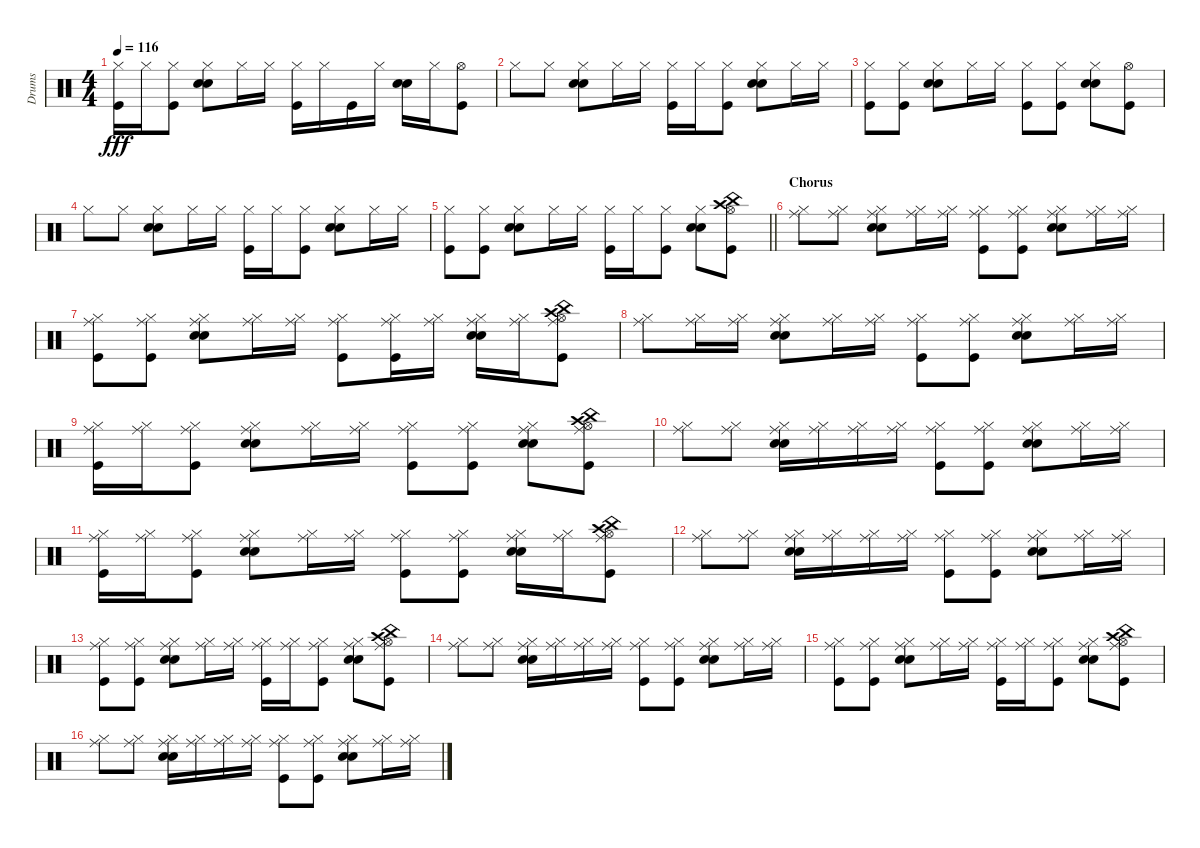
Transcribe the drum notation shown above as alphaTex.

\track ("Drums" "Drums") {instrument percussion}
\staff {score}
\articulation defaults
\ts (4 4)
\tempo 116
\clef neutral
\ks c
("Hi-Hat (closed)" "Kick (hit)").16{dy fff} "Hi-Hat (closed)".16 ("Hi-Hat (closed)" "Kick (hit)").8 ("Snare (hit) 2" "Electric Snare (hit)" "Hi-Hat (closed)").8 "Hi-Hat (closed)".16 "Hi-Hat (closed)".16 ("Kick (hit)" "Hi-Hat (closed)").16 "Hi-Hat (closed)".16 "Kick (hit)".16 "Hi-Hat (closed)".16 ("Snare (hit) 2" "Electric Snare (hit)").16 "Hi-Hat (closed)".16 ("Hi-Hat (open)" "Kick (hit)").8 |
"Hi-Hat (closed)".8 "Hi-Hat (closed)".8 ("Snare (hit) 2" "Electric Snare (hit)" "Hi-Hat (closed)").8 "Hi-Hat (closed)".16 "Hi-Hat (closed)".16 ("Hi-Hat (closed)" "Kick (hit)").16 "Hi-Hat (closed)".16 ("Kick (hit)" "Hi-Hat (closed)").8 ("Snare (hit) 2" "Electric Snare (hit)" "Hi-Hat (closed)").8 "Hi-Hat (closed)".16 "Hi-Hat (closed)".16 |
("Kick (hit)" "Hi-Hat (closed)").8 ("Kick (hit)" "Hi-Hat (closed)").8 ("Snare (hit) 2" "Electric Snare (hit)" "Hi-Hat (closed)").8 "Hi-Hat (closed)".16 "Hi-Hat (closed)".16 ("Kick (hit)" "Hi-Hat (closed)").8 ("Hi-Hat (closed)" "Kick (hit)").8 ("Hi-Hat (closed)" "Snare (hit) 2" "Electric Snare (hit)").8 ("Hi-Hat (open)" "Kick (hit)").8 |
"Hi-Hat (closed)".8 "Hi-Hat (closed)".8 ("Snare (hit) 2" "Electric Snare (hit)" "Hi-Hat (closed)").8 "Hi-Hat (closed)".16 "Hi-Hat (closed)".16 ("Hi-Hat (closed)" "Kick (hit)").16 "Hi-Hat (closed)".16 ("Hi-Hat (closed)" "Kick (hit)").8 ("Snare (hit) 2" "Electric Snare (hit)" "Hi-Hat (closed)").8 "Hi-Hat (closed)".16 "Hi-Hat (closed)".16 |
\barLineRight lightlight
("Kick (hit)" "Hi-Hat (closed)").8 ("Hi-Hat (closed)" "Kick (hit)").8 ("Snare (hit) 2" "Electric Snare (hit)" "Hi-Hat (closed)").8 "Hi-Hat (closed)".16 "Hi-Hat (closed)".16 ("Kick (hit)" "Hi-Hat (closed)").16 "Hi-Hat (closed)".16 ("Hi-Hat (closed)" "Kick (hit)").8 ("Snare (hit) 2" "Electric Snare (hit)" "Hi-Hat (closed)").8 ("Hi-Hat (open)" "Crash high (hit)" "China (hit)" "Kick (hit)").8 |
\section ("" "Chorus")
("Ride (middle)" "Hi-Hat (closed)").8 ("Ride (middle)" "Hi-Hat (closed)").8 ("Snare (hit) 2" "Electric Snare (hit)" "Ride (middle)" "Hi-Hat (closed)").8 ("Ride (middle)" "Hi-Hat (closed)").16 ("Ride (middle)" "Hi-Hat (closed)").16 ("Ride (middle)" "Hi-Hat (closed)" "Kick (hit)").8 ("Ride (middle)" "Hi-Hat (closed)" "Kick (hit)").8 ("Ride (middle)" "Hi-Hat (closed)" "Snare (hit) 2" "Electric Snare (hit)").8 ("Ride (middle)" "Hi-Hat (closed)").16 ("Ride (middle)" "Hi-Hat (closed)").16 |
("Ride (middle)" "Hi-Hat (closed)" "Kick (hit)").8 ("Ride (middle)" "Hi-Hat (closed)" "Kick (hit)").8 ("Snare (hit) 2" "Electric Snare (hit)" "Ride (middle)" "Hi-Hat (closed)").8 ("Ride (middle)" "Hi-Hat (closed)").16 ("Ride (middle)" "Hi-Hat (closed)").16 ("Kick (hit)" "Ride (middle)" "Hi-Hat (closed)").8 ("Kick (hit)" "Ride (middle)" "Hi-Hat (closed)").16 ("Ride (middle)" "Hi-Hat (closed)").16 ("Snare (hit) 2" "Electric Snare (hit)" "Ride (middle)" "Hi-Hat (closed)").16 ("Ride (middle)" "Hi-Hat (closed)").16 ("Crash high (hit)" "China (hit)" "Ride (middle)" "Hi-Hat (open)" "Kick (hit)").8 |
("Ride (middle)" "Hi-Hat (closed)").8 ("Ride (middle)" "Hi-Hat (closed)").16 ("Ride (middle)" "Hi-Hat (closed)").16 ("Snare (hit) 2" "Electric Snare (hit)" "Ride (middle)" "Hi-Hat (closed)").8 ("Ride (middle)" "Hi-Hat (closed)").16 ("Ride (middle)" "Hi-Hat (closed)").16 ("Ride (middle)" "Hi-Hat (closed)" "Kick (hit)").8 ("Ride (middle)" "Hi-Hat (closed)" "Kick (hit)").8 ("Ride (middle)" "Hi-Hat (closed)" "Snare (hit) 2" "Electric Snare (hit)").8 ("Ride (middle)" "Hi-Hat (closed)").16 ("Ride (middle)" "Hi-Hat (closed)").16 |
("Ride (middle)" "Hi-Hat (closed)" "Kick (hit)").16 ("Ride (middle)" "Hi-Hat (closed)").16 ("Ride (middle)" "Hi-Hat (closed)" "Kick (hit)").8 ("Snare (hit) 2" "Electric Snare (hit)" "Ride (middle)" "Hi-Hat (closed)").8 ("Ride (middle)" "Hi-Hat (closed)").16 ("Ride (middle)" "Hi-Hat (closed)").16 ("Kick (hit)" "Ride (middle)" "Hi-Hat (closed)").8 ("Ride (middle)" "Hi-Hat (closed)" "Kick (hit)").8 ("Snare (hit) 2" "Electric Snare (hit)" "Ride (middle)" "Hi-Hat (closed)").8 ("Crash high (hit)" "China (hit)" "Ride (middle)" "Hi-Hat (open)" "Kick (hit)").8 |
("Ride (middle)" "Hi-Hat (closed)").8 ("Ride (middle)" "Hi-Hat (closed)").8 ("Snare (hit) 2" "Electric Snare (hit)" "Ride (middle)" "Hi-Hat (closed)").16 ("Ride (middle)" "Hi-Hat (closed)").16 ("Ride (middle)" "Hi-Hat (closed)").16 ("Ride (middle)" "Hi-Hat (closed)").16 ("Ride (middle)" "Hi-Hat (closed)" "Kick (hit)").8 ("Ride (middle)" "Hi-Hat (closed)" "Kick (hit)").8 ("Snare (hit) 2" "Electric Snare (hit)" "Ride (middle)" "Hi-Hat (closed)").8 ("Ride (middle)" "Hi-Hat (closed)").16 ("Ride (middle)" "Hi-Hat (closed)").16 |
("Ride (middle)" "Hi-Hat (closed)" "Kick (hit)").16 ("Ride (middle)" "Hi-Hat (closed)").16 ("Ride (middle)" "Hi-Hat (closed)" "Kick (hit)").8 ("Snare (hit) 2" "Electric Snare (hit)" "Ride (middle)" "Hi-Hat (closed)").8 ("Ride (middle)" "Hi-Hat (closed)").16 ("Ride (middle)" "Hi-Hat (closed)").16 ("Ride (middle)" "Hi-Hat (closed)" "Kick (hit)").8 ("Ride (middle)" "Hi-Hat (closed)" "Kick (hit)").8 ("Snare (hit) 2" "Electric Snare (hit)" "Ride (middle)" "Hi-Hat (closed)").16 ("Ride (middle)" "Hi-Hat (closed)").16 ("Crash high (hit)" "China (hit)" "Kick (hit)" "Ride (middle)" "Hi-Hat (open)").8 |
("Ride (middle)" "Hi-Hat (closed)").8 ("Ride (middle)" "Hi-Hat (closed)").8 ("Snare (hit) 2" "Electric Snare (hit)" "Ride (middle)" "Hi-Hat (closed)").16 ("Ride (middle)" "Hi-Hat (closed)").16 ("Ride (middle)" "Hi-Hat (closed)").16 ("Ride (middle)" "Hi-Hat (closed)").16 ("Ride (middle)" "Hi-Hat (closed)" "Kick (hit)").8 ("Ride (middle)" "Hi-Hat (closed)" "Kick (hit)").8 ("Snare (hit) 2" "Electric Snare (hit)" "Ride (middle)" "Hi-Hat (closed)").8 ("Ride (middle)" "Hi-Hat (closed)").16 ("Ride (middle)" "Hi-Hat (closed)").16 |
("Ride (middle)" "Hi-Hat (closed)" "Kick (hit)").8 ("Ride (middle)" "Hi-Hat (closed)" "Kick (hit)").8 ("Ride (middle)" "Hi-Hat (closed)" "Snare (hit) 2" "Electric Snare (hit)").8 ("Ride (middle)" "Hi-Hat (closed)").16 ("Ride (middle)" "Hi-Hat (closed)").16 ("Ride (middle)" "Hi-Hat (closed)" "Kick (hit)").16 ("Ride (middle)" "Hi-Hat (closed)").16 ("Ride (middle)" "Hi-Hat (closed)" "Kick (hit)").8 ("Snare (hit) 2" "Electric Snare (hit)" "Ride (middle)" "Hi-Hat (closed)").8 ("Ride (middle)" "Hi-Hat (open)" "Crash high (hit)" "China (hit)" "Kick (hit)").8 |
("Ride (middle)" "Hi-Hat (closed)").8 ("Ride (middle)" "Hi-Hat (closed)").8 ("Snare (hit) 2" "Electric Snare (hit)" "Ride (middle)" "Hi-Hat (closed)").16 ("Ride (middle)" "Hi-Hat (closed)").16 ("Ride (middle)" "Hi-Hat (closed)").16 ("Ride (middle)" "Hi-Hat (closed)").16 ("Ride (middle)" "Hi-Hat (closed)" "Kick (hit)").8 ("Ride (middle)" "Hi-Hat (closed)" "Kick (hit)").8 ("Ride (middle)" "Hi-Hat (closed)" "Snare (hit) 2" "Electric Snare (hit)").8 ("Ride (middle)" "Hi-Hat (closed)").16 ("Ride (middle)" "Hi-Hat (closed)").16 |
("Ride (middle)" "Hi-Hat (closed)" "Kick (hit)").8 ("Ride (middle)" "Hi-Hat (closed)" "Kick (hit)").8 ("Ride (middle)" "Hi-Hat (closed)" "Snare (hit) 2" "Electric Snare (hit)").8 ("Ride (middle)" "Hi-Hat (closed)").16 ("Ride (middle)" "Hi-Hat (closed)").16 ("Kick (hit)" "Ride (middle)" "Hi-Hat (closed)").16 ("Ride (middle)" "Hi-Hat (closed)").16 ("Ride (middle)" "Hi-Hat (closed)" "Kick (hit)").8 ("Snare (hit) 2" "Electric Snare (hit)" "Ride (middle)" "Hi-Hat (closed)").8 ("Crash high (hit)" "China (hit)" "Kick (hit)" "Ride (middle)" "Hi-Hat (open)").8 |
("Ride (middle)" "Hi-Hat (closed)").8 ("Ride (middle)" "Hi-Hat (closed)").8 ("Snare (hit) 2" "Electric Snare (hit)" "Ride (middle)" "Hi-Hat (closed)").16 ("Ride (middle)" "Hi-Hat (closed)").16 ("Ride (middle)" "Hi-Hat (closed)").16 ("Ride (middle)" "Hi-Hat (closed)").16 ("Ride (middle)" "Hi-Hat (closed)" "Kick (hit)").8 ("Kick (hit)" "Ride (middle)" "Hi-Hat (closed)").8 ("Snare (hit) 2" "Electric Snare (hit)" "Ride (middle)" "Hi-Hat (closed)").8 ("Ride (middle)" "Hi-Hat (closed)").16 ("Ride (middle)" "Hi-Hat (closed)").16
